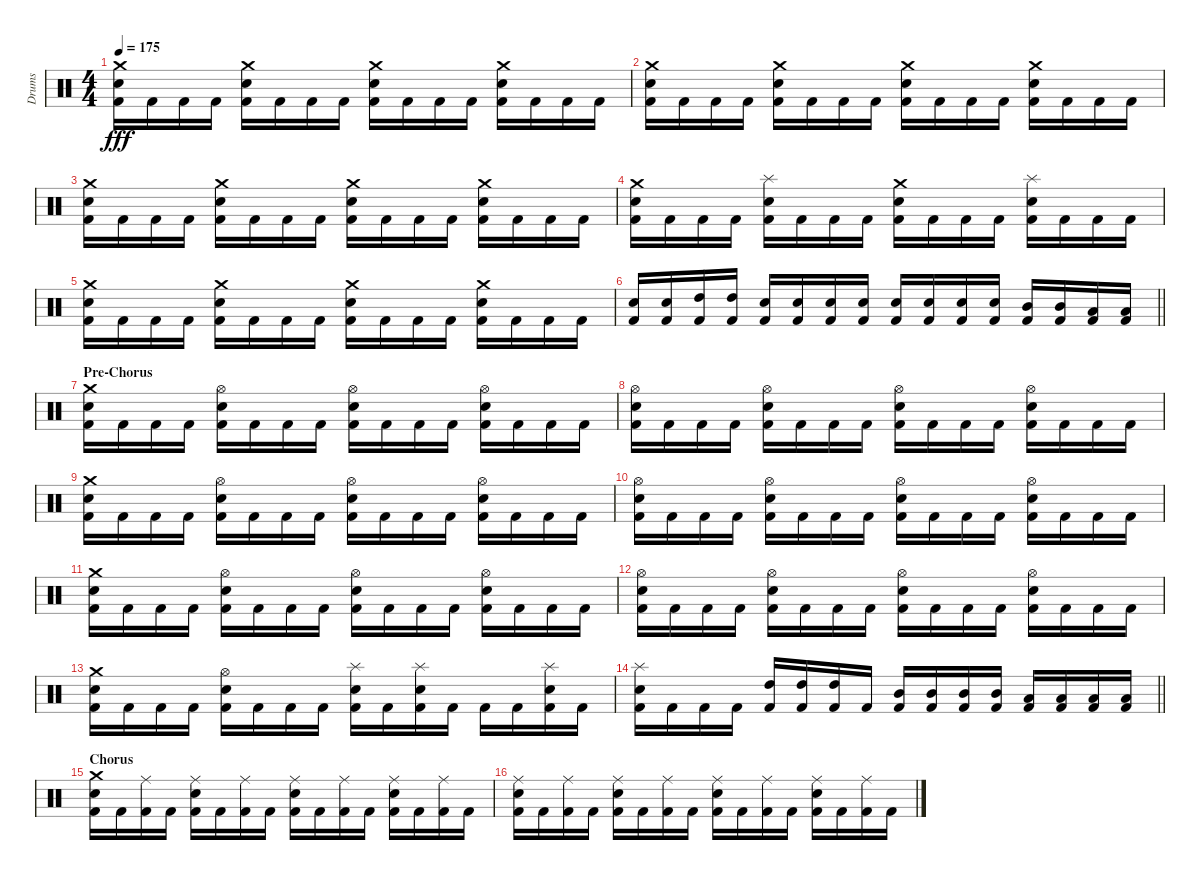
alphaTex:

\track ("Drums" "Drums") {instrument percussion}
\staff {score}
\articulation defaults
\ts (4 4)
\tempo 175
\clef neutral
\ks c
("Crash medium (hit)" "Electric Snare (hit)" "Kick (hit) 2").16{dy fff} "Kick (hit) 2".16 "Kick (hit) 2".16 "Kick (hit) 2".16 ("Crash medium (hit)" "Electric Snare (hit)" "Kick (hit) 2").16 "Kick (hit) 2".16 "Kick (hit) 2".16 "Kick (hit) 2".16 ("Crash medium (hit)" "Electric Snare (hit)" "Kick (hit) 2").16 "Kick (hit) 2".16 "Kick (hit) 2".16 "Kick (hit) 2".16 ("Crash medium (hit)" "Electric Snare (hit)" "Kick (hit) 2").16 "Kick (hit) 2".16 "Kick (hit) 2".16 "Kick (hit) 2".16 |
("Crash medium (hit)" "Electric Snare (hit)" "Kick (hit) 2").16 "Kick (hit) 2".16 "Kick (hit) 2".16 "Kick (hit) 2".16 ("Crash medium (hit)" "Electric Snare (hit)" "Kick (hit) 2").16 "Kick (hit) 2".16 "Kick (hit) 2".16 "Kick (hit) 2".16 ("Crash medium (hit)" "Electric Snare (hit)" "Kick (hit) 2").16 "Kick (hit) 2".16 "Kick (hit) 2".16 "Kick (hit) 2".16 ("Crash medium (hit)" "Electric Snare (hit)" "Kick (hit) 2").16 "Kick (hit) 2".16 "Kick (hit) 2".16 "Kick (hit) 2".16 |
("Crash medium (hit)" "Electric Snare (hit)" "Kick (hit) 2").16 "Kick (hit) 2".16 "Kick (hit) 2".16 "Kick (hit) 2".16 ("Crash medium (hit)" "Electric Snare (hit)" "Kick (hit) 2").16 "Kick (hit) 2".16 "Kick (hit) 2".16 "Kick (hit) 2".16 ("Crash medium (hit)" "Electric Snare (hit)" "Kick (hit) 2").16 "Kick (hit) 2".16 "Kick (hit) 2".16 "Kick (hit) 2".16 ("Crash medium (hit)" "Electric Snare (hit)" "Kick (hit) 2").16 "Kick (hit) 2".16 "Kick (hit) 2".16 "Kick (hit) 2".16 |
("Crash medium (hit)" "Electric Snare (hit)" "Kick (hit) 2").16 "Kick (hit) 2".16 "Kick (hit) 2".16 "Kick (hit) 2".16 ("Splash (hit)" "Electric Snare (hit)" "Kick (hit) 2").16 "Kick (hit) 2".16 "Kick (hit) 2".16 "Kick (hit) 2".16 ("Crash medium (hit)" "Electric Snare (hit)" "Kick (hit) 2").16 "Kick (hit) 2".16 "Kick (hit) 2".16 "Kick (hit) 2".16 ("Splash (hit)" "Electric Snare (hit)" "Kick (hit) 2").16 "Kick (hit) 2".16 "Kick (hit) 2".16 "Kick (hit) 2".16 |
("Crash medium (hit)" "Electric Snare (hit)" "Kick (hit) 2").16 "Kick (hit) 2".16 "Kick (hit) 2".16 "Kick (hit) 2".16 ("Crash medium (hit)" "Electric Snare (hit)" "Kick (hit) 2").16 "Kick (hit) 2".16 "Kick (hit) 2".16 "Kick (hit) 2".16 ("Crash medium (hit)" "Electric Snare (hit)" "Kick (hit) 2").16 "Kick (hit) 2".16 "Kick (hit) 2".16 "Kick (hit) 2".16 ("Crash medium (hit)" "Electric Snare (hit)" "Kick (hit) 2").16 "Kick (hit) 2".16 "Kick (hit) 2".16 "Kick (hit) 2".16 |
\barLineRight lightlight
("Electric Snare (hit)" "Kick (hit) 2").16 ("Electric Snare (hit)" "Kick (hit) 2").16 ("High Tom (hit)" "Kick (hit) 2").16 ("High Tom (hit)" "Kick (hit) 2").16 ("Electric Snare (hit)" "Kick (hit) 2").16 ("Electric Snare (hit)" "Kick (hit) 2").16 ("Electric Snare (hit)" "Kick (hit) 2").16 ("Electric Snare (hit)" "Kick (hit) 2").16 ("Electric Snare (hit)" "Kick (hit) 2").16 ("Electric Snare (hit)" "Kick (hit) 2").16 ("Electric Snare (hit)" "Kick (hit) 2").16 ("Electric Snare (hit)" "Kick (hit) 2").16 ("Mid Tom (hit)" "Kick (hit) 2").16 ("Mid Tom (hit)" "Kick (hit) 2").16 ("Low Tom (hit)" "Kick (hit) 2").16 ("Low Tom (hit)" "Kick (hit) 2").16 |
\section ("" "Pre-Chorus")
("Crash medium (hit)" "Electric Snare (hit)" "Kick (hit) 2").16 "Kick (hit) 2".16 "Kick (hit) 2".16 "Kick (hit) 2".16 ("Hi-Hat (open)" "Electric Snare (hit)" "Kick (hit) 2").16 "Kick (hit) 2".16 "Kick (hit) 2".16 "Kick (hit) 2".16 ("Hi-Hat (open)" "Electric Snare (hit)" "Kick (hit) 2").16 "Kick (hit) 2".16 "Kick (hit) 2".16 "Kick (hit) 2".16 ("Hi-Hat (open)" "Electric Snare (hit)" "Kick (hit) 2").16 "Kick (hit) 2".16 "Kick (hit) 2".16 "Kick (hit) 2".16 |
("Hi-Hat (open)" "Electric Snare (hit)" "Kick (hit) 2").16 "Kick (hit) 2".16 "Kick (hit) 2".16 "Kick (hit) 2".16 ("Hi-Hat (open)" "Electric Snare (hit)" "Kick (hit) 2").16 "Kick (hit) 2".16 "Kick (hit) 2".16 "Kick (hit) 2".16 ("Hi-Hat (open)" "Electric Snare (hit)" "Kick (hit) 2").16 "Kick (hit) 2".16 "Kick (hit) 2".16 "Kick (hit) 2".16 ("Hi-Hat (open)" "Electric Snare (hit)" "Kick (hit) 2").16 "Kick (hit) 2".16 "Kick (hit) 2".16 "Kick (hit) 2".16 |
("Crash medium (hit)" "Electric Snare (hit)" "Kick (hit) 2").16 "Kick (hit) 2".16 "Kick (hit) 2".16 "Kick (hit) 2".16 ("Hi-Hat (open)" "Electric Snare (hit)" "Kick (hit) 2").16 "Kick (hit) 2".16 "Kick (hit) 2".16 "Kick (hit) 2".16 ("Hi-Hat (open)" "Electric Snare (hit)" "Kick (hit) 2").16 "Kick (hit) 2".16 "Kick (hit) 2".16 "Kick (hit) 2".16 ("Hi-Hat (open)" "Electric Snare (hit)" "Kick (hit) 2").16 "Kick (hit) 2".16 "Kick (hit) 2".16 "Kick (hit) 2".16 |
("Hi-Hat (open)" "Electric Snare (hit)" "Kick (hit) 2").16 "Kick (hit) 2".16 "Kick (hit) 2".16 "Kick (hit) 2".16 ("Hi-Hat (open)" "Electric Snare (hit)" "Kick (hit) 2").16 "Kick (hit) 2".16 "Kick (hit) 2".16 "Kick (hit) 2".16 ("Hi-Hat (open)" "Electric Snare (hit)" "Kick (hit) 2").16 "Kick (hit) 2".16 "Kick (hit) 2".16 "Kick (hit) 2".16 ("Hi-Hat (open)" "Electric Snare (hit)" "Kick (hit) 2").16 "Kick (hit) 2".16 "Kick (hit) 2".16 "Kick (hit) 2".16 |
("Crash medium (hit)" "Electric Snare (hit)" "Kick (hit) 2").16 "Kick (hit) 2".16 "Kick (hit) 2".16 "Kick (hit) 2".16 ("Hi-Hat (open)" "Electric Snare (hit)" "Kick (hit) 2").16 "Kick (hit) 2".16 "Kick (hit) 2".16 "Kick (hit) 2".16 ("Hi-Hat (open)" "Electric Snare (hit)" "Kick (hit) 2").16 "Kick (hit) 2".16 "Kick (hit) 2".16 "Kick (hit) 2".16 ("Hi-Hat (open)" "Electric Snare (hit)" "Kick (hit) 2").16 "Kick (hit) 2".16 "Kick (hit) 2".16 "Kick (hit) 2".16 |
("Hi-Hat (open)" "Electric Snare (hit)" "Kick (hit) 2").16 "Kick (hit) 2".16 "Kick (hit) 2".16 "Kick (hit) 2".16 ("Hi-Hat (open)" "Electric Snare (hit)" "Kick (hit) 2").16 "Kick (hit) 2".16 "Kick (hit) 2".16 "Kick (hit) 2".16 ("Hi-Hat (open)" "Electric Snare (hit)" "Kick (hit) 2").16 "Kick (hit) 2".16 "Kick (hit) 2".16 "Kick (hit) 2".16 ("Hi-Hat (open)" "Electric Snare (hit)" "Kick (hit) 2").16 "Kick (hit) 2".16 "Kick (hit) 2".16 "Kick (hit) 2".16 |
("Crash medium (hit)" "Electric Snare (hit)" "Kick (hit) 2").16 "Kick (hit) 2".16 "Kick (hit) 2".16 "Kick (hit) 2".16 ("Hi-Hat (open)" "Electric Snare (hit)" "Kick (hit) 2").16 "Kick (hit) 2".16 "Kick (hit) 2".16 "Kick (hit) 2".16 ("Splash (hit)" "Electric Snare (hit)" "Kick (hit) 2").16 "Kick (hit) 2".16 ("Splash (hit)" "Electric Snare (hit)" "Kick (hit) 2").16 "Kick (hit) 2".16 "Kick (hit) 2".16 "Kick (hit) 2".16 ("Splash (hit)" "Electric Snare (hit)" "Kick (hit) 2").16 "Kick (hit) 2".16 |
\barLineRight lightlight
("Splash (hit)" "Electric Snare (hit)" "Kick (hit) 2").16 "Kick (hit) 2".16 "Kick (hit) 2".16 "Kick (hit) 2".16 ("High Tom (hit)" "Kick (hit) 2").16 ("High Tom (hit)" "Kick (hit) 2").16 ("High Tom (hit)" "Kick (hit) 2").16 "Kick (hit) 2".16 ("Mid Tom (hit)" "Kick (hit) 2").16 ("Mid Tom (hit)" "Kick (hit) 2").16 ("Mid Tom (hit)" "Kick (hit) 2").16 ("Mid Tom (hit)" "Kick (hit) 2").16 ("Low Tom (hit)" "Kick (hit) 2").16 ("Low Tom (hit)" "Kick (hit) 2").16 ("Low Tom (hit)" "Kick (hit) 2").16 ("Low Tom (hit)" "Kick (hit) 2").16 |
\section ("" "Chorus")
("Crash medium (hit)" "Electric Snare (hit)" "Kick (hit) 2").16 "Kick (hit) 2".16 ("Ride (middle)" "Kick (hit) 2").16 "Kick (hit) 2".16 ("Ride (middle)" "Electric Snare (hit)" "Kick (hit) 2").16 "Kick (hit) 2".16 ("Ride (middle)" "Kick (hit) 2").16 "Kick (hit) 2".16 ("Ride (middle)" "Electric Snare (hit)" "Kick (hit) 2").16 "Kick (hit) 2".16 ("Ride (middle)" "Kick (hit) 2").16 "Kick (hit) 2".16 ("Ride (middle)" "Electric Snare (hit)" "Kick (hit) 2").16 "Kick (hit) 2".16 ("Ride (middle)" "Kick (hit) 2").16 "Kick (hit) 2".16 |
("Ride (middle)" "Electric Snare (hit)" "Kick (hit) 2").16 "Kick (hit) 2".16 ("Ride (middle)" "Kick (hit) 2").16 "Kick (hit) 2".16 ("Ride (middle)" "Electric Snare (hit)" "Kick (hit) 2").16 "Kick (hit) 2".16 ("Ride (middle)" "Kick (hit) 2").16 "Kick (hit) 2".16 ("Ride (middle)" "Electric Snare (hit)" "Kick (hit) 2").16 "Kick (hit) 2".16 ("Ride (middle)" "Kick (hit) 2").16 "Kick (hit) 2".16 ("Ride (middle)" "Electric Snare (hit)" "Kick (hit) 2").16 "Kick (hit) 2".16 ("Ride (middle)" "Kick (hit) 2").16 "Kick (hit) 2".16
